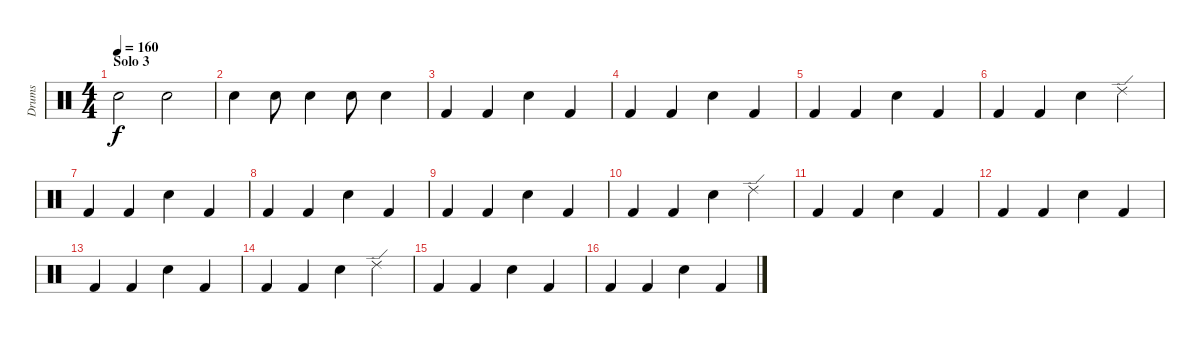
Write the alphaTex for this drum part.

\track ("Drums" "Drums") {instrument percussion}
\staff {score}
\articulation defaults
\ts (4 4)
\section ("" "Solo 3")
\tempo 160
\clef neutral
\ks c "Snare (hit) 2".2{dy f} "Snare (hit) 2".2
|
"Snare (hit) 2".4 "Snare (hit) 2".8 "Snare (hit) 2".4 "Snare (hit) 2".8 "Snare (hit) 2".4 |
"Kick (hit) 2".4 "Kick (hit) 2".4 "Snare (hit) 2".4 "Kick (hit) 2".4 |
"Kick (hit) 2".4 "Kick (hit) 2".4 "Snare (hit) 2".4 "Kick (hit) 2".4 |
"Kick (hit) 2".4 "Kick (hit) 2".4 "Snare (hit) 2".4 "Kick (hit) 2".4 |
"Kick (hit) 2".4 "Kick (hit) 2".4 "Snare (hit) 2".4 "Ride (edge) 2".4 |
"Kick (hit) 2".4 "Kick (hit) 2".4 "Snare (hit) 2".4 "Kick (hit) 2".4 |
"Kick (hit) 2".4 "Kick (hit) 2".4 "Snare (hit) 2".4 "Kick (hit) 2".4 |
"Kick (hit) 2".4 "Kick (hit) 2".4 "Snare (hit) 2".4 "Kick (hit) 2".4 |
"Kick (hit) 2".4 "Kick (hit) 2".4 "Snare (hit) 2".4 "Ride (edge) 2".4 |
"Kick (hit) 2".4 "Kick (hit) 2".4 "Snare (hit) 2".4 "Kick (hit) 2".4 |
"Kick (hit) 2".4 "Kick (hit) 2".4 "Snare (hit) 2".4 "Kick (hit) 2".4 |
"Kick (hit) 2".4 "Kick (hit) 2".4 "Snare (hit) 2".4 "Kick (hit) 2".4 |
"Kick (hit) 2".4 "Kick (hit) 2".4 "Snare (hit) 2".4 "Ride (edge) 2".4 |
"Kick (hit) 2".4 "Kick (hit) 2".4 "Snare (hit) 2".4 "Kick (hit) 2".4 |
"Kick (hit) 2".4 "Kick (hit) 2".4 "Snare (hit) 2".4 "Kick (hit) 2".4
